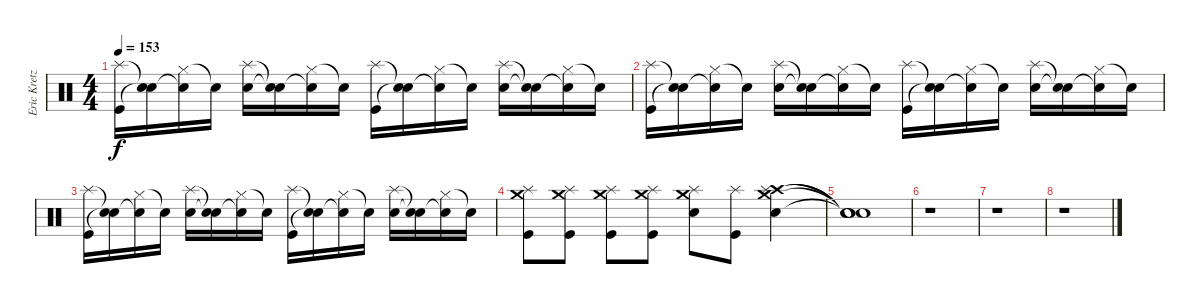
\track ("Eric Kretz - Drums" "Eric Kretz") {instrument percussion}
\staff {score}
\articulation defaults
\ts (4 4)
\tempo 153
\clef neutral
\ks c
("Kick (hit)" "Splash (hit)").16{dy f} ("Snare (hit)"{t} "Snare (hit)"{t}).16 ("Hi-Hat (closed)" "Snare (hit)"{t}).16 "Snare (hit)"{t}.16 ("Snare (hit) 2" "Splash (hit)").16 ("Snare (hit)"{t} "Snare (hit)"{t}).16 ("Hi-Hat (closed)" "Snare (hit)"{t}).16 "Snare (hit)"{t}.16 ("Kick (hit)" "Splash (hit)").16 ("Snare (hit)"{t} "Snare (hit)"{t}).16 ("Hi-Hat (closed)" "Snare (hit)"{t}).16 "Snare (hit)"{t}.16 ("Snare (hit) 2" "Splash (hit)").16 ("Snare (hit)"{t} "Snare (hit)"{t}).16 ("Hi-Hat (closed)" "Snare (hit)"{t}).16 "Snare (hit)"{t}.16 |
("Kick (hit)" "Splash (hit)").16 ("Snare (hit)"{t} "Snare (hit)"{t}).16 ("Hi-Hat (closed)" "Snare (hit)"{t}).16 "Snare (hit)"{t}.16 ("Snare (hit) 2" "Splash (hit)").16 ("Snare (hit)"{t} "Snare (hit)"{t}).16 ("Hi-Hat (closed)" "Snare (hit)"{t}).16 "Snare (hit)"{t}.16 ("Kick (hit)" "Splash (hit)").16 ("Snare (hit)"{t} "Snare (hit)"{t}).16 ("Hi-Hat (closed)" "Snare (hit)"{t}).16 "Snare (hit)"{t}.16 ("Snare (hit) 2" "Splash (hit)").16 ("Snare (hit)"{t} "Snare (hit)"{t}).16 ("Hi-Hat (closed)" "Snare (hit)"{t}).16 "Snare (hit)"{t}.16 |
("Kick (hit)" "Splash (hit)").16 ("Snare (hit)"{t} "Snare (hit)"{t}).16 ("Hi-Hat (closed)" "Snare (hit)"{t}).16 "Snare (hit)"{t}.16 ("Snare (hit) 2" "Splash (hit)").16 ("Snare (hit)"{t} "Snare (hit)"{t}).16 ("Hi-Hat (closed)" "Snare (hit)"{t}).16 "Snare (hit)"{t}.16 ("Kick (hit)" "Splash (hit)").16 ("Snare (hit)"{t} "Snare (hit)"{t}).16 ("Hi-Hat (closed)" "Snare (hit)"{t}).16 "Snare (hit)"{t}.16 ("Snare (hit) 2" "Splash (hit)").16 ("Snare (hit)"{t} "Snare (hit)"{t}).16 ("Hi-Hat (closed)" "Snare (hit)"{t}).16 "Snare (hit)"{t}.16 |
("Crash medium (hit)" "Splash (hit)" "Kick (hit)").8 ("Crash medium (hit)" "Splash (hit)" "Kick (hit)").8 ("Crash medium (hit)" "Splash (hit)" "Kick (hit)").8 ("Crash medium (hit)" "Splash (hit)" "Kick (hit)").8 ("Crash medium (hit)" "Splash (hit)" "Snare (hit) 2").8 ("Splash (hit)" "Kick (hit)").8 ("Crash high (hit)" "Splash (hit)" "Crash medium (hit)" "Snare (hit) 2").4 |
("Snare (hit)"{t} "Snare (hit)"{t} "Snare (hit)"{t} "Snare (hit)"{t}).1 |
r.1 |
r.1 |
r.1
